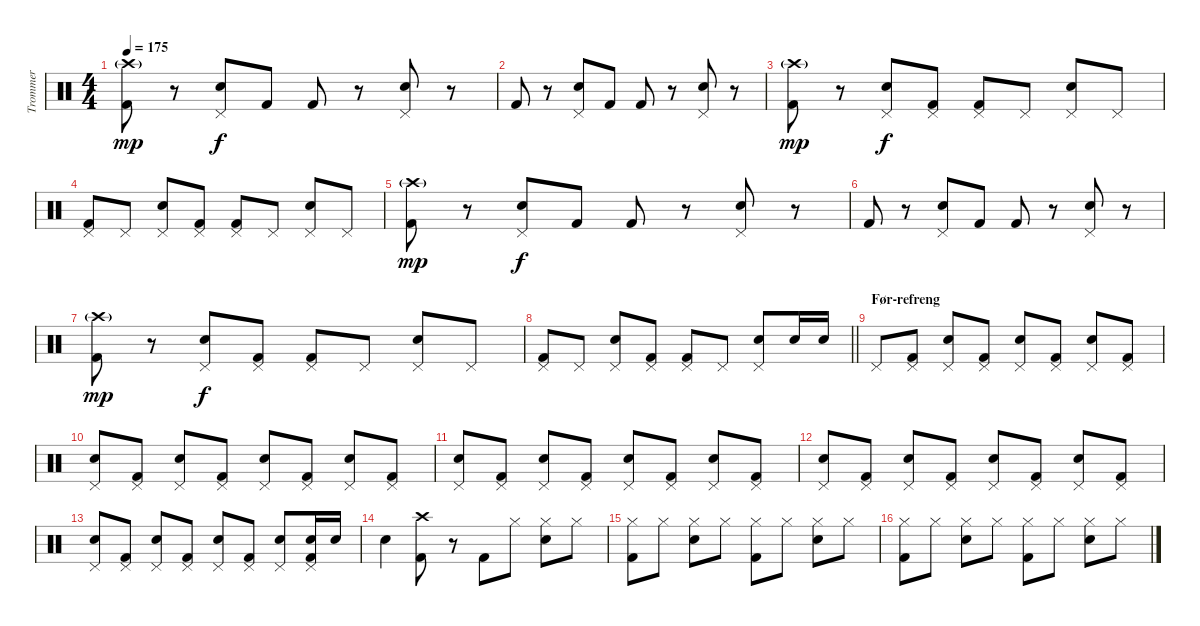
\track ("Trommer" "Trommer") {instrument percussion}
\staff {score}
\articulation defaults
\ts (4 4)
\tempo 175
\clef neutral
\ks c
("Crash high (hit)"{g} "Kick (hit) 2").8{dy mp} r.8 ("Pedal Hi-Hat (hit)" "Electric Snare (hit)").8{dy f} "Kick (hit) 2".8 "Kick (hit) 2".8 r.8 ("Pedal Hi-Hat (hit)" "Electric Snare (hit)").8 r.8 |
"Kick (hit) 2".8 r.8 ("Pedal Hi-Hat (hit)" "Electric Snare (hit)").8 "Kick (hit) 2".8 "Kick (hit) 2".8 r.8 ("Pedal Hi-Hat (hit)" "Electric Snare (hit)").8 r.8 |
("Crash high (hit)"{g} "Kick (hit) 2").8{dy mp} r.8 ("Pedal Hi-Hat (hit)" "Electric Snare (hit)").8{dy f} ("Pedal Hi-Hat (hit)" "Kick (hit) 2").8 ("Pedal Hi-Hat (hit)" "Kick (hit) 2").8 "Pedal Hi-Hat (hit)".8 ("Pedal Hi-Hat (hit)" "Electric Snare (hit)").8 "Pedal Hi-Hat (hit)".8 |
("Pedal Hi-Hat (hit)" "Kick (hit) 2").8 "Pedal Hi-Hat (hit)".8 ("Pedal Hi-Hat (hit)" "Electric Snare (hit)").8 ("Pedal Hi-Hat (hit)" "Kick (hit) 2").8 ("Pedal Hi-Hat (hit)" "Kick (hit) 2").8 "Pedal Hi-Hat (hit)".8 ("Pedal Hi-Hat (hit)" "Electric Snare (hit)").8 "Pedal Hi-Hat (hit)".8 |
("Crash high (hit)"{g} "Kick (hit) 2").8{dy mp} r.8 ("Pedal Hi-Hat (hit)" "Electric Snare (hit)").8{dy f} "Kick (hit) 2".8 "Kick (hit) 2".8 r.8 ("Pedal Hi-Hat (hit)" "Electric Snare (hit)").8 r.8 |
"Kick (hit) 2".8 r.8 ("Pedal Hi-Hat (hit)" "Electric Snare (hit)").8 "Kick (hit) 2".8 "Kick (hit) 2".8 r.8 ("Pedal Hi-Hat (hit)" "Electric Snare (hit)").8 r.8 |
("Crash high (hit)"{g} "Kick (hit) 2").8{dy mp} r.8 ("Pedal Hi-Hat (hit)" "Electric Snare (hit)").8{dy f} ("Pedal Hi-Hat (hit)" "Kick (hit) 2").8 ("Pedal Hi-Hat (hit)" "Kick (hit) 2").8 "Pedal Hi-Hat (hit)".8 ("Pedal Hi-Hat (hit)" "Electric Snare (hit)").8 "Pedal Hi-Hat (hit)".8 |
\barLineRight lightlight
("Pedal Hi-Hat (hit)" "Kick (hit) 2").8 "Pedal Hi-Hat (hit)".8 ("Pedal Hi-Hat (hit)" "Electric Snare (hit)").8 ("Pedal Hi-Hat (hit)" "Kick (hit) 2").8 ("Pedal Hi-Hat (hit)" "Kick (hit) 2").8 "Pedal Hi-Hat (hit)".8 ("Pedal Hi-Hat (hit)" "Electric Snare (hit)").8 "Electric Snare (hit)".16 "Electric Snare (hit)".16 |
\section ("" "Før-refreng")
"Pedal Hi-Hat (hit)".8 ("Pedal Hi-Hat (hit)" "Kick (hit) 2").8 ("Pedal Hi-Hat (hit)" "Electric Snare (hit)").8 ("Pedal Hi-Hat (hit)" "Kick (hit) 2").8 ("Pedal Hi-Hat (hit)" "Electric Snare (hit)").8 ("Pedal Hi-Hat (hit)" "Kick (hit) 2").8 ("Pedal Hi-Hat (hit)" "Electric Snare (hit)").8 ("Pedal Hi-Hat (hit)" "Kick (hit) 2").8 |
("Pedal Hi-Hat (hit)" "Electric Snare (hit)").8 ("Pedal Hi-Hat (hit)" "Kick (hit) 2").8 ("Pedal Hi-Hat (hit)" "Electric Snare (hit)").8 ("Pedal Hi-Hat (hit)" "Kick (hit) 2").8 ("Pedal Hi-Hat (hit)" "Electric Snare (hit)").8 ("Pedal Hi-Hat (hit)" "Kick (hit) 2").8 ("Pedal Hi-Hat (hit)" "Electric Snare (hit)").8 ("Pedal Hi-Hat (hit)" "Kick (hit) 2").8 |
("Pedal Hi-Hat (hit)" "Electric Snare (hit)").8 ("Pedal Hi-Hat (hit)" "Kick (hit) 2").8 ("Pedal Hi-Hat (hit)" "Electric Snare (hit)").8 ("Pedal Hi-Hat (hit)" "Kick (hit) 2").8 ("Pedal Hi-Hat (hit)" "Electric Snare (hit)").8 ("Pedal Hi-Hat (hit)" "Kick (hit) 2").8 ("Pedal Hi-Hat (hit)" "Electric Snare (hit)").8 ("Pedal Hi-Hat (hit)" "Kick (hit) 2").8 |
("Pedal Hi-Hat (hit)" "Electric Snare (hit)").8 ("Pedal Hi-Hat (hit)" "Kick (hit) 2").8 ("Pedal Hi-Hat (hit)" "Electric Snare (hit)").8 ("Pedal Hi-Hat (hit)" "Kick (hit) 2").8 ("Pedal Hi-Hat (hit)" "Electric Snare (hit)").8 ("Pedal Hi-Hat (hit)" "Kick (hit) 2").8 ("Pedal Hi-Hat (hit)" "Electric Snare (hit)").8 ("Pedal Hi-Hat (hit)" "Kick (hit) 2").8 |
("Pedal Hi-Hat (hit)" "Electric Snare (hit)").8 ("Pedal Hi-Hat (hit)" "Kick (hit) 2").8 ("Pedal Hi-Hat (hit)" "Electric Snare (hit)").8 ("Pedal Hi-Hat (hit)" "Kick (hit) 2").8 ("Pedal Hi-Hat (hit)" "Electric Snare (hit)").8 ("Pedal Hi-Hat (hit)" "Kick (hit) 2").8 ("Pedal Hi-Hat (hit)" "Electric Snare (hit)").8 ("Pedal Hi-Hat (hit)" "Electric Snare (hit)" "Kick (hit) 2").16 "Electric Snare (hit)".16 |
"Electric Snare (hit)".4 ("Crash high (hit)" "Kick (hit) 2").8 r.8 "Kick (hit) 2".8 "Hi-Hat (closed)".8 ("Hi-Hat (closed)" "Electric Snare (hit)").8 "Hi-Hat (closed)".8 |
("Hi-Hat (closed)" "Kick (hit) 2").8 "Hi-Hat (closed)".8 ("Hi-Hat (closed)" "Electric Snare (hit)").8 "Hi-Hat (closed)".8 ("Hi-Hat (closed)" "Kick (hit) 2").8 "Hi-Hat (closed)".8 ("Hi-Hat (closed)" "Electric Snare (hit)").8 "Hi-Hat (closed)".8 |
("Hi-Hat (closed)" "Kick (hit) 2").8 "Hi-Hat (closed)".8 ("Hi-Hat (closed)" "Electric Snare (hit)").8 "Hi-Hat (closed)".8 ("Hi-Hat (closed)" "Kick (hit) 2").8 "Hi-Hat (closed)".8 ("Hi-Hat (closed)" "Electric Snare (hit)").8 "Hi-Hat (closed)".8
